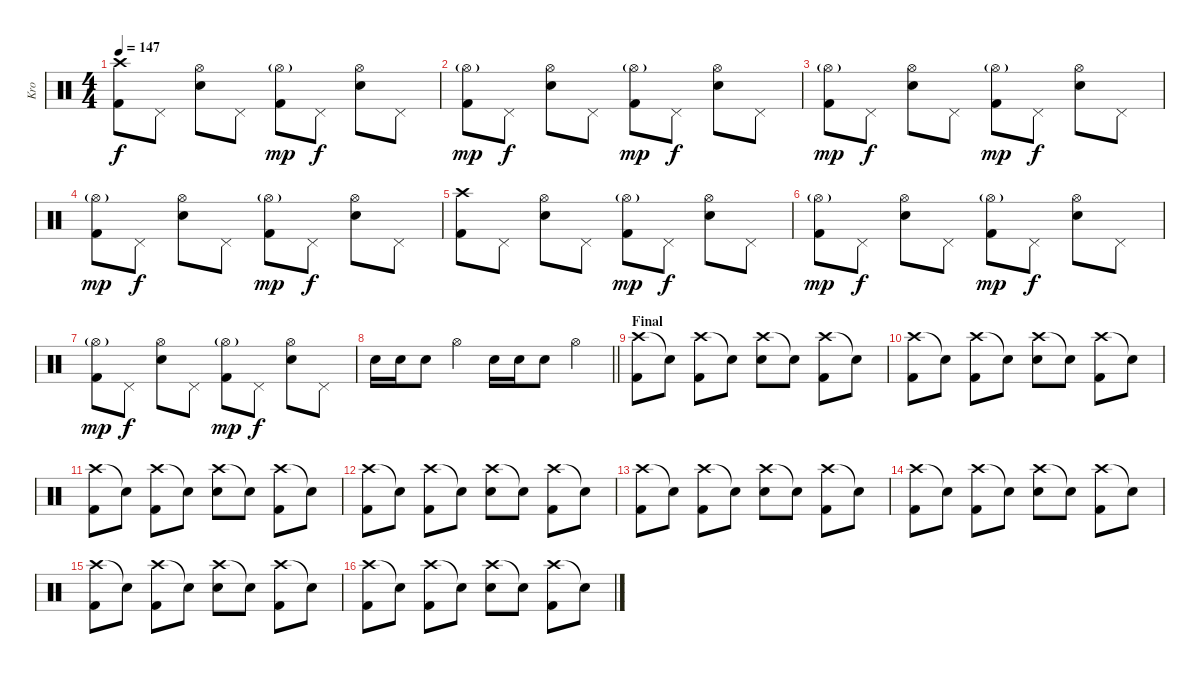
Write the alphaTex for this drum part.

\track ("Kro" "Kro") {instrument percussion}
\staff {score}
\articulation defaults
\ts (4 4)
\tempo 147
\clef neutral
\ks c
("Crash high (hit)" "Kick (hit) 2").8{dy f} "Pedal Hi-Hat (hit)".8 ("Hi-Hat (open)" "Electric Snare (hit)").8 "Pedal Hi-Hat (hit)".8 ("Hi-Hat (open)"{g} "Kick (hit) 2").8{dy mp} "Pedal Hi-Hat (hit)".8{dy f} ("Hi-Hat (open)" "Electric Snare (hit)").8 "Pedal Hi-Hat (hit)".8 |
("Hi-Hat (open)"{g} "Kick (hit) 2").8{dy mp} "Pedal Hi-Hat (hit)".8{dy f} ("Hi-Hat (open)" "Electric Snare (hit)").8 "Pedal Hi-Hat (hit)".8 ("Hi-Hat (open)"{g} "Kick (hit) 2").8{dy mp} "Pedal Hi-Hat (hit)".8{dy f} ("Hi-Hat (open)" "Electric Snare (hit)").8 "Pedal Hi-Hat (hit)".8 |
("Hi-Hat (open)"{g} "Kick (hit) 2").8{dy mp} "Pedal Hi-Hat (hit)".8{dy f} ("Hi-Hat (open)" "Electric Snare (hit)").8 "Pedal Hi-Hat (hit)".8 ("Hi-Hat (open)"{g} "Kick (hit) 2").8{dy mp} "Pedal Hi-Hat (hit)".8{dy f} ("Hi-Hat (open)" "Electric Snare (hit)").8 "Pedal Hi-Hat (hit)".8 |
("Hi-Hat (open)"{g} "Kick (hit) 2").8{dy mp} "Pedal Hi-Hat (hit)".8{dy f} ("Hi-Hat (open)" "Electric Snare (hit)").8 "Pedal Hi-Hat (hit)".8 ("Hi-Hat (open)"{g} "Kick (hit) 2").8{dy mp} "Pedal Hi-Hat (hit)".8{dy f} ("Hi-Hat (open)" "Electric Snare (hit)").8 "Pedal Hi-Hat (hit)".8 |
("Crash high (hit)" "Kick (hit) 2").8 "Pedal Hi-Hat (hit)".8 ("Hi-Hat (open)" "Electric Snare (hit)").8 "Pedal Hi-Hat (hit)".8 ("Hi-Hat (open)"{g} "Kick (hit) 2").8{dy mp} "Pedal Hi-Hat (hit)".8{dy f} ("Hi-Hat (open)" "Electric Snare (hit)").8 "Pedal Hi-Hat (hit)".8 |
("Hi-Hat (open)"{g} "Kick (hit) 2").8{dy mp} "Pedal Hi-Hat (hit)".8{dy f} ("Hi-Hat (open)" "Electric Snare (hit)").8 "Pedal Hi-Hat (hit)".8 ("Hi-Hat (open)"{g} "Kick (hit) 2").8{dy mp} "Pedal Hi-Hat (hit)".8{dy f} ("Hi-Hat (open)" "Electric Snare (hit)").8 "Pedal Hi-Hat (hit)".8 |
("Hi-Hat (open)"{g} "Kick (hit) 2").8{dy mp} "Pedal Hi-Hat (hit)".8{dy f} ("Hi-Hat (open)" "Electric Snare (hit)").8 "Pedal Hi-Hat (hit)".8 ("Hi-Hat (open)"{g} "Kick (hit) 2").8{dy mp} "Pedal Hi-Hat (hit)".8{dy f} ("Hi-Hat (open)" "Electric Snare (hit)").8 "Pedal Hi-Hat (hit)".8 |
\barLineRight lightlight "Electric Snare (hit)".16 "Electric Snare (hit)".16 "Electric Snare (hit)".8 "Hi-Hat (open)".4 "Electric Snare (hit)".16 "Electric Snare (hit)".16 "Electric Snare (hit)".8 "Hi-Hat (open)".4
|
\section ("" "Final")
("Crash high (hit)" "Kick (hit) 2").8 "Snare (hit)"{t}.8 ("Crash high (hit)" "Kick (hit) 2").8 "Snare (hit)"{t}.8 ("Crash high (hit)" "Electric Snare (hit)").8 "Snare (hit)"{t}.8 ("Crash high (hit)" "Kick (hit) 2").8 "Snare (hit)"{t}.8 |
("Crash high (hit)" "Kick (hit) 2").8 "Snare (hit)"{t}.8 ("Crash high (hit)" "Kick (hit) 2").8 "Snare (hit)"{t}.8 ("Crash high (hit)" "Electric Snare (hit)").8 "Snare (hit)"{t}.8 ("Crash high (hit)" "Kick (hit) 2").8 "Snare (hit)"{t}.8 |
("Crash high (hit)" "Kick (hit) 2").8 "Snare (hit)"{t}.8 ("Crash high (hit)" "Kick (hit) 2").8 "Snare (hit)"{t}.8 ("Crash high (hit)" "Electric Snare (hit)").8 "Snare (hit)"{t}.8 ("Crash high (hit)" "Kick (hit) 2").8 "Snare (hit)"{t}.8 |
("Crash high (hit)" "Kick (hit) 2").8 "Snare (hit)"{t}.8 ("Crash high (hit)" "Kick (hit) 2").8 "Snare (hit)"{t}.8 ("Crash high (hit)" "Electric Snare (hit)").8 "Snare (hit)"{t}.8 ("Crash high (hit)" "Kick (hit) 2").8 "Snare (hit)"{t}.8 |
("Crash high (hit)" "Kick (hit) 2").8 "Snare (hit)"{t}.8 ("Crash high (hit)" "Kick (hit) 2").8 "Snare (hit)"{t}.8 ("Crash high (hit)" "Electric Snare (hit)").8 "Snare (hit)"{t}.8 ("Crash high (hit)" "Kick (hit) 2").8 "Snare (hit)"{t}.8 |
("Crash high (hit)" "Kick (hit) 2").8 "Snare (hit)"{t}.8 ("Crash high (hit)" "Kick (hit) 2").8 "Snare (hit)"{t}.8 ("Crash high (hit)" "Electric Snare (hit)").8 "Snare (hit)"{t}.8 ("Crash high (hit)" "Kick (hit) 2").8 "Snare (hit)"{t}.8 |
("Crash high (hit)" "Kick (hit) 2").8 "Snare (hit)"{t}.8 ("Crash high (hit)" "Kick (hit) 2").8 "Snare (hit)"{t}.8 ("Crash high (hit)" "Electric Snare (hit)").8 "Snare (hit)"{t}.8 ("Crash high (hit)" "Kick (hit) 2").8 "Snare (hit)"{t}.8 |
("Crash high (hit)" "Kick (hit) 2").8 "Snare (hit)"{t}.8 ("Crash high (hit)" "Kick (hit) 2").8 "Snare (hit)"{t}.8 ("Crash high (hit)" "Electric Snare (hit)").8 "Snare (hit)"{t}.8 ("Crash high (hit)" "Kick (hit) 2").8 "Snare (hit)"{t}.8
